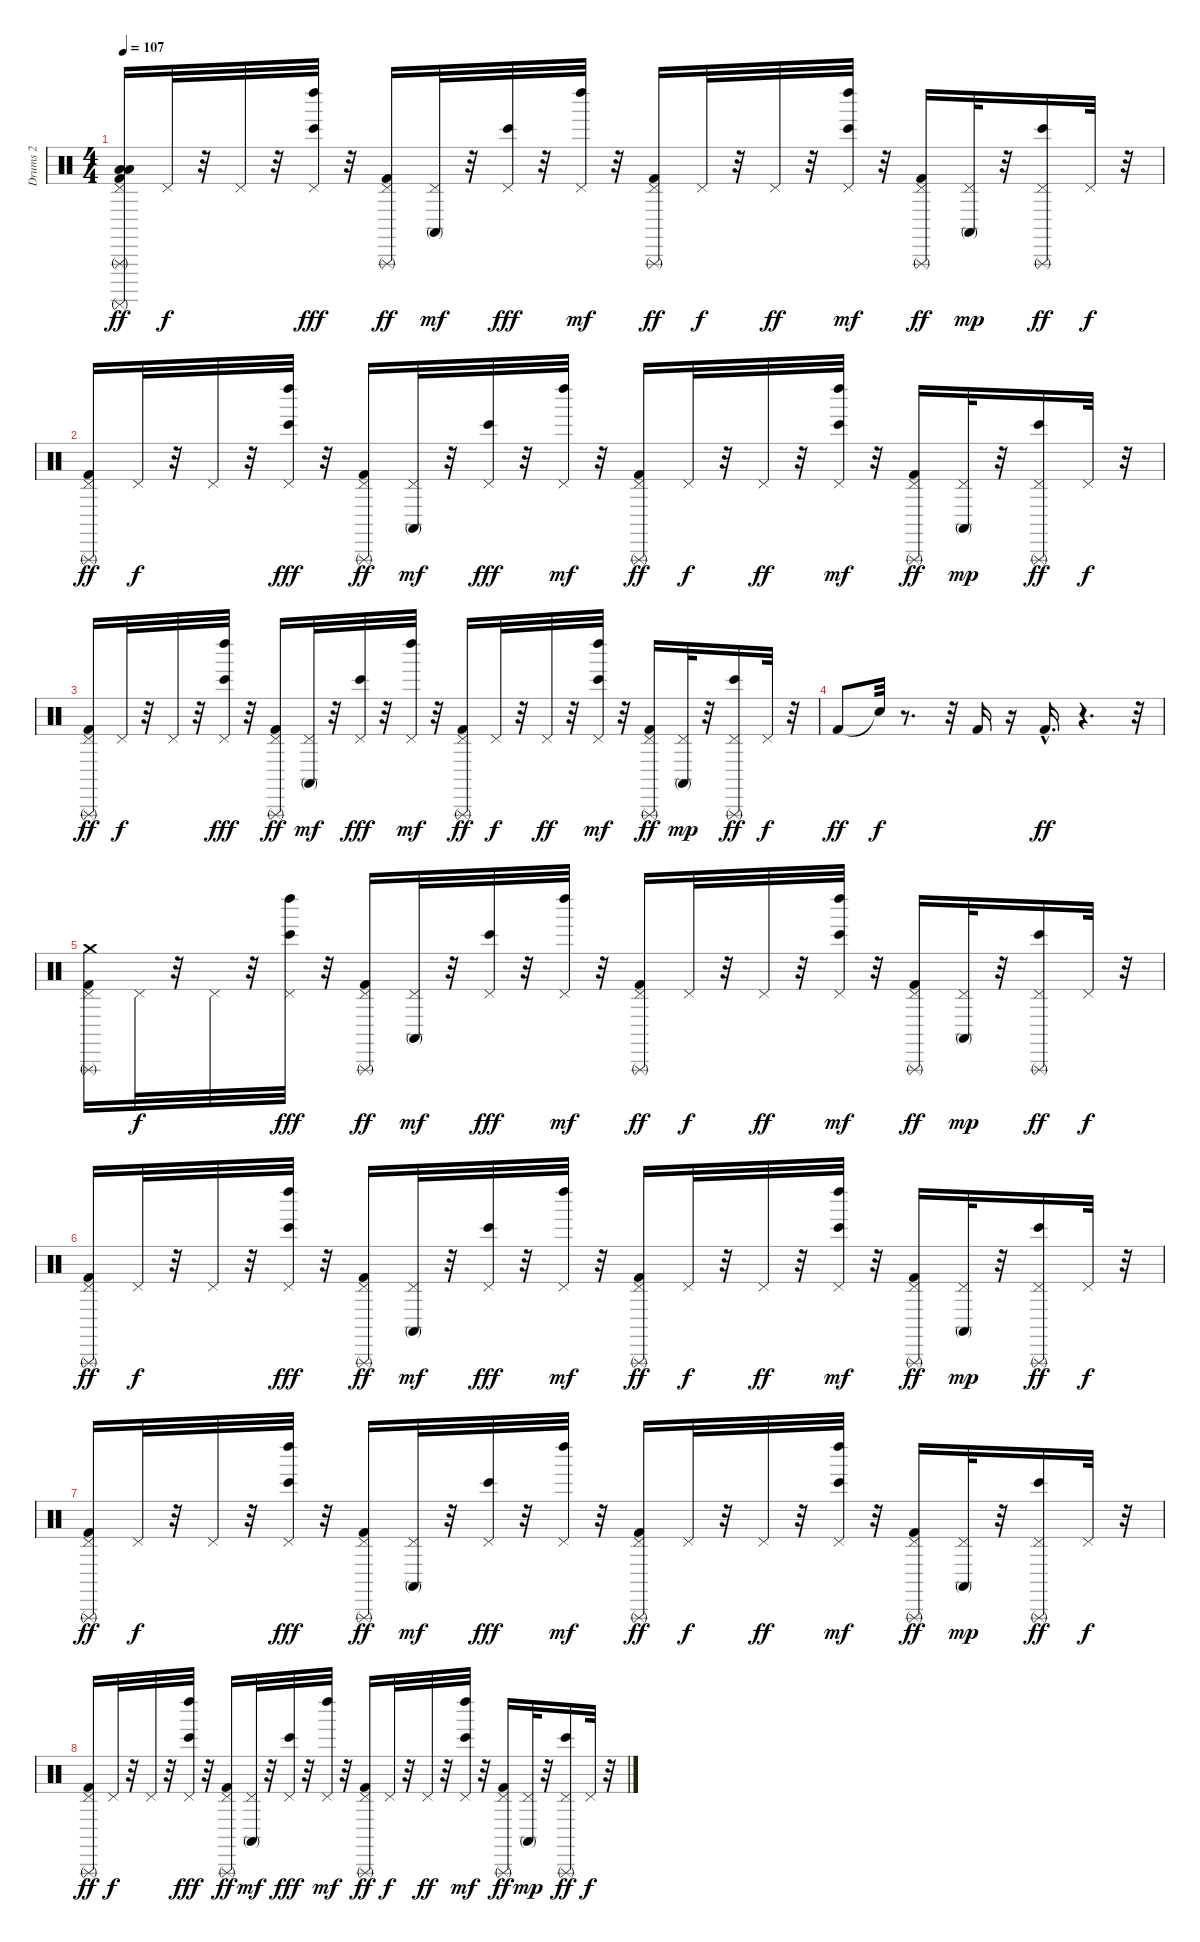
\track ("Drums 2" "Drums 2") {instrument percussion}
\staff {score}
\articulation defaults
\ts (4 4)
\tempo 107
\clef neutral
\ks c
("Kick (hit) 2" "Low Tom (hit)" "Low Floor Tom (hit)" "Surdo (mute)" "Pedal Hi-Hat (hit)" "Triangle (rnute)").16{dy ff} "Pedal Hi-Hat (hit)".32{dy f} r.32 "Pedal Hi-Hat (hit)".32 r.32 ("Pedal Hi-Hat (hit)" "Bongo High (hit)" "Left Maraca (hit)").32{dy fff} r.32 ("Kick (hit) 2" "Pedal Hi-Hat (hit)" "Triangle (rnute)").16{dy ff} ("Pedal Hi-Hat (hit)" "Conga high (mute)").32{dy mf} r.32 ("Pedal Hi-Hat (hit)" "Bongo High (hit)").32{dy fff} r.32 ("Pedal Hi-Hat (hit)" "Left Maraca (hit)").32{dy mf} r.32 ("Kick (hit) 2" "Pedal Hi-Hat (hit)" "Triangle (rnute)").16{dy ff} "Pedal Hi-Hat (hit)".32{dy f} r.32 "Pedal Hi-Hat (hit)".32{dy ff} r.32 ("Pedal Hi-Hat (hit)" "Bongo High (hit)" "Left Maraca (hit)").32{dy mf} r.32 ("Kick (hit) 2" "Pedal Hi-Hat (hit)" "Triangle (rnute)").16{dy ff} ("Pedal Hi-Hat (hit)" "Conga high (mute)").32{dy mp} r.32 ("Pedal Hi-Hat (hit)" "Bongo High (hit)" "Triangle (rnute)").16{dy ff} "Pedal Hi-Hat (hit)".32{dy f} r.32 |
("Kick (hit) 2" "Pedal Hi-Hat (hit)" "Triangle (rnute)").16{dy ff} "Pedal Hi-Hat (hit)".32{dy f} r.32 "Pedal Hi-Hat (hit)".32 r.32 ("Pedal Hi-Hat (hit)" "Bongo High (hit)" "Left Maraca (hit)").32{dy fff} r.32 ("Kick (hit) 2" "Pedal Hi-Hat (hit)" "Triangle (rnute)").16{dy ff} ("Pedal Hi-Hat (hit)" "Conga high (mute)").32{dy mf} r.32 ("Pedal Hi-Hat (hit)" "Bongo High (hit)").32{dy fff} r.32 ("Pedal Hi-Hat (hit)" "Left Maraca (hit)").32{dy mf} r.32 ("Kick (hit) 2" "Pedal Hi-Hat (hit)" "Triangle (rnute)").16{dy ff} "Pedal Hi-Hat (hit)".32{dy f} r.32 "Pedal Hi-Hat (hit)".32{dy ff} r.32 ("Pedal Hi-Hat (hit)" "Bongo High (hit)" "Left Maraca (hit)").32{dy mf} r.32 ("Kick (hit) 2" "Pedal Hi-Hat (hit)" "Triangle (rnute)").16{dy ff} ("Pedal Hi-Hat (hit)" "Conga high (mute)").32{dy mp} r.32 ("Pedal Hi-Hat (hit)" "Bongo High (hit)" "Triangle (rnute)").16{dy ff} "Pedal Hi-Hat (hit)".32{dy f} r.32 |
("Kick (hit) 2" "Pedal Hi-Hat (hit)" "Triangle (rnute)").16{dy ff} "Pedal Hi-Hat (hit)".32{dy f} r.32 "Pedal Hi-Hat (hit)".32 r.32 ("Pedal Hi-Hat (hit)" "Bongo High (hit)" "Left Maraca (hit)").32{dy fff} r.32 ("Kick (hit) 2" "Pedal Hi-Hat (hit)" "Triangle (rnute)").16{dy ff} ("Pedal Hi-Hat (hit)" "Conga high (mute)").32{dy mf} r.32 ("Pedal Hi-Hat (hit)" "Bongo High (hit)").32{dy fff} r.32 ("Pedal Hi-Hat (hit)" "Left Maraca (hit)").32{dy mf} r.32 ("Kick (hit) 2" "Pedal Hi-Hat (hit)" "Triangle (rnute)").16{dy ff} "Pedal Hi-Hat (hit)".32{dy f} r.32 "Pedal Hi-Hat (hit)".32{dy ff} r.32 ("Pedal Hi-Hat (hit)" "Bongo High (hit)" "Left Maraca (hit)").32{dy mf} r.32 ("Kick (hit) 2" "Pedal Hi-Hat (hit)" "Triangle (rnute)").16{dy ff} ("Pedal Hi-Hat (hit)" "Conga high (mute)").32{dy mp} r.32 ("Pedal Hi-Hat (hit)" "Bongo High (hit)" "Triangle (rnute)").16{dy ff} "Pedal Hi-Hat (hit)".32{dy f} r.32 |
"Kick (hit) 2".8{dy ff} "Snare (hit)"{t}.32{dy f} r.8{d} r.32 "Kick (hit) 2".16 r.16 "Kick (hit) 2"{hac}.16{d dy ff} r.4{d} r.32 |
("Kick (hit) 2" "Pedal Hi-Hat (hit)" "Triangle (rnute)" "Crash medium (hit)").16 "Pedal Hi-Hat (hit)".32{dy f} r.32 "Pedal Hi-Hat (hit)".32 r.32 ("Pedal Hi-Hat (hit)" "Bongo High (hit)" "Left Maraca (hit)").32{dy fff} r.32 ("Kick (hit) 2" "Pedal Hi-Hat (hit)" "Triangle (rnute)").16{dy ff} ("Pedal Hi-Hat (hit)" "Conga high (mute)").32{dy mf} r.32 ("Pedal Hi-Hat (hit)" "Bongo High (hit)").32{dy fff} r.32 ("Pedal Hi-Hat (hit)" "Left Maraca (hit)").32{dy mf} r.32 ("Kick (hit) 2" "Pedal Hi-Hat (hit)" "Triangle (rnute)").16{dy ff} "Pedal Hi-Hat (hit)".32{dy f} r.32 "Pedal Hi-Hat (hit)".32{dy ff} r.32 ("Pedal Hi-Hat (hit)" "Bongo High (hit)" "Left Maraca (hit)").32{dy mf} r.32 ("Kick (hit) 2" "Pedal Hi-Hat (hit)" "Triangle (rnute)").16{dy ff} ("Pedal Hi-Hat (hit)" "Conga high (mute)").32{dy mp} r.32 ("Pedal Hi-Hat (hit)" "Bongo High (hit)" "Triangle (rnute)").16{dy ff} "Pedal Hi-Hat (hit)".32{dy f} r.32 |
("Kick (hit) 2" "Pedal Hi-Hat (hit)" "Triangle (rnute)").16{dy ff} "Pedal Hi-Hat (hit)".32{dy f} r.32 "Pedal Hi-Hat (hit)".32 r.32 ("Pedal Hi-Hat (hit)" "Bongo High (hit)" "Left Maraca (hit)").32{dy fff} r.32 ("Kick (hit) 2" "Pedal Hi-Hat (hit)" "Triangle (rnute)").16{dy ff} ("Pedal Hi-Hat (hit)" "Conga high (mute)").32{dy mf} r.32 ("Pedal Hi-Hat (hit)" "Bongo High (hit)").32{dy fff} r.32 ("Pedal Hi-Hat (hit)" "Left Maraca (hit)").32{dy mf} r.32 ("Kick (hit) 2" "Pedal Hi-Hat (hit)" "Triangle (rnute)").16{dy ff} "Pedal Hi-Hat (hit)".32{dy f} r.32 "Pedal Hi-Hat (hit)".32{dy ff} r.32 ("Pedal Hi-Hat (hit)" "Bongo High (hit)" "Left Maraca (hit)").32{dy mf} r.32 ("Kick (hit) 2" "Pedal Hi-Hat (hit)" "Triangle (rnute)").16{dy ff} ("Pedal Hi-Hat (hit)" "Conga high (mute)").32{dy mp} r.32 ("Pedal Hi-Hat (hit)" "Bongo High (hit)" "Triangle (rnute)").16{dy ff} "Pedal Hi-Hat (hit)".32{dy f} r.32 |
("Kick (hit) 2" "Pedal Hi-Hat (hit)" "Triangle (rnute)").16{dy ff} "Pedal Hi-Hat (hit)".32{dy f} r.32 "Pedal Hi-Hat (hit)".32 r.32 ("Pedal Hi-Hat (hit)" "Bongo High (hit)" "Left Maraca (hit)").32{dy fff} r.32 ("Kick (hit) 2" "Pedal Hi-Hat (hit)" "Triangle (rnute)").16{dy ff} ("Pedal Hi-Hat (hit)" "Conga high (mute)").32{dy mf} r.32 ("Pedal Hi-Hat (hit)" "Bongo High (hit)").32{dy fff} r.32 ("Pedal Hi-Hat (hit)" "Left Maraca (hit)").32{dy mf} r.32 ("Kick (hit) 2" "Pedal Hi-Hat (hit)" "Triangle (rnute)").16{dy ff} "Pedal Hi-Hat (hit)".32{dy f} r.32 "Pedal Hi-Hat (hit)".32{dy ff} r.32 ("Pedal Hi-Hat (hit)" "Bongo High (hit)" "Left Maraca (hit)").32{dy mf} r.32 ("Kick (hit) 2" "Pedal Hi-Hat (hit)" "Triangle (rnute)").16{dy ff} ("Pedal Hi-Hat (hit)" "Conga high (mute)").32{dy mp} r.32 ("Pedal Hi-Hat (hit)" "Bongo High (hit)" "Triangle (rnute)").16{dy ff} "Pedal Hi-Hat (hit)".32{dy f} r.32 |
("Kick (hit) 2" "Pedal Hi-Hat (hit)" "Triangle (rnute)").16{dy ff} "Pedal Hi-Hat (hit)".32{dy f} r.32 "Pedal Hi-Hat (hit)".32 r.32 ("Pedal Hi-Hat (hit)" "Bongo High (hit)" "Left Maraca (hit)").32{dy fff} r.32 ("Kick (hit) 2" "Pedal Hi-Hat (hit)" "Triangle (rnute)").16{dy ff} ("Pedal Hi-Hat (hit)" "Conga high (mute)").32{dy mf} r.32 ("Pedal Hi-Hat (hit)" "Bongo High (hit)").32{dy fff} r.32 ("Pedal Hi-Hat (hit)" "Left Maraca (hit)").32{dy mf} r.32 ("Kick (hit) 2" "Pedal Hi-Hat (hit)" "Triangle (rnute)").16{dy ff} "Pedal Hi-Hat (hit)".32{dy f} r.32 "Pedal Hi-Hat (hit)".32{dy ff} r.32 ("Pedal Hi-Hat (hit)" "Bongo High (hit)" "Left Maraca (hit)").32{dy mf} r.32 ("Kick (hit) 2" "Pedal Hi-Hat (hit)" "Triangle (rnute)").16{dy ff} ("Pedal Hi-Hat (hit)" "Conga high (mute)").32{dy mp} r.32 ("Pedal Hi-Hat (hit)" "Bongo High (hit)" "Triangle (rnute)").16{dy ff} "Pedal Hi-Hat (hit)".32{dy f} r.32
